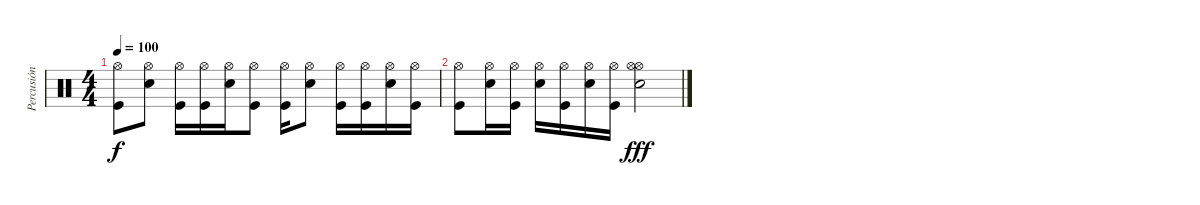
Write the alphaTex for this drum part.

\track ("Percusión" "Percusión") {instrument percussion}
\staff {score}
\articulation defaults
\ts (4 4)
\tempo 100
\clef neutral
\ks c
("Kick (hit)" "Hi-Hat (open)").8{dy f} ("Snare (hit) 2" "Hi-Hat (open)").8 ("Kick (hit)" "Hi-Hat (open)").16 ("Kick (hit)" "Hi-Hat (open)").16 ("Snare (hit) 2" "Hi-Hat (open)").16 ("Kick (hit)" "Hi-Hat (open)").8 ("Kick (hit)" "Hi-Hat (open)").16 ("Snare (hit) 2" "Hi-Hat (open)").8 ("Kick (hit)" "Hi-Hat (open)").16 ("Kick (hit)" "Hi-Hat (open)").16 ("Snare (hit) 2" "Hi-Hat (open)").16 ("Kick (hit)" "Hi-Hat (open)").16 |
("Kick (hit)" "Hi-Hat (open)").8 ("Snare (hit) 2" "Hi-Hat (open)").16 ("Kick (hit)" "Hi-Hat (open)").16 ("Snare (hit) 2" "Hi-Hat (open)").16 ("Kick (hit)" "Hi-Hat (open)").16 ("Snare (hit) 2" "Hi-Hat (open)").16 ("Kick (hit)" "Hi-Hat (open)").16 ("Hi-Hat (open)" "Hi-Hat (open)" "Snare (hit) 2").2{dy fff}
